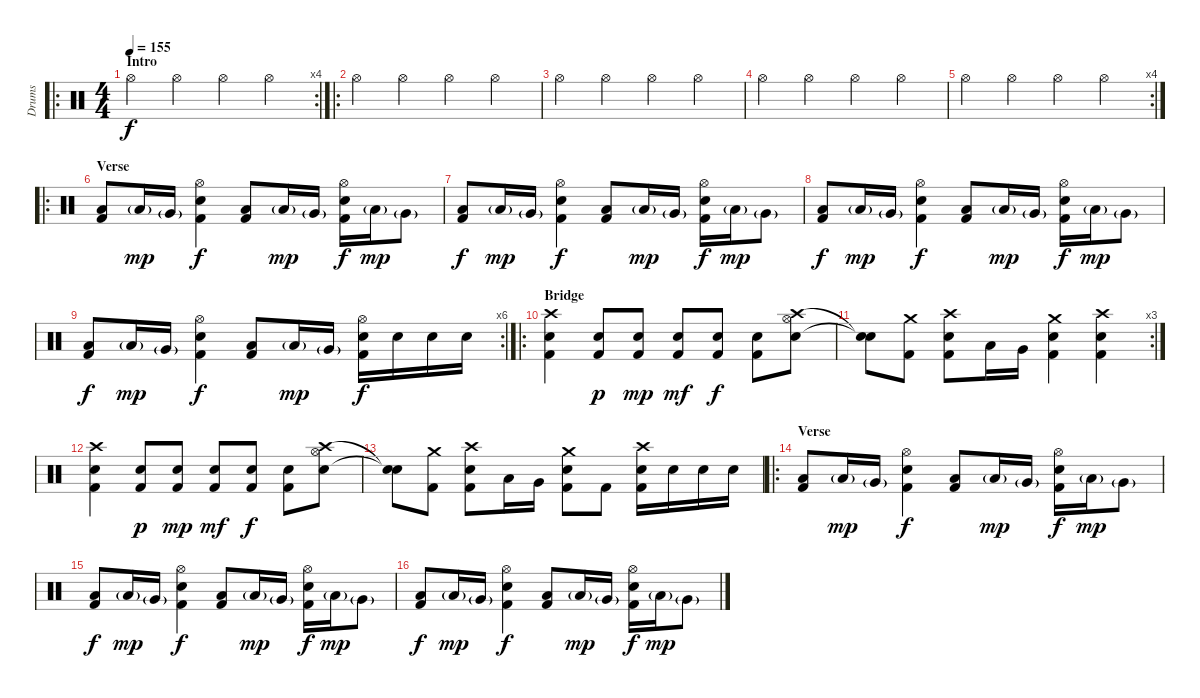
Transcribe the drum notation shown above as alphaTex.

\track ("Drums" "Drums") {instrument percussion}
\staff {score}
\articulation defaults
\ro
\rc 4
\ts (4 4)
\section ("" "Intro")
\tempo 155
\clef neutral
\ks c "Hi-Hat (open)".4{dy f} "Hi-Hat (open)".4 "Hi-Hat (open)".4 "Hi-Hat (open)".4
|
\ro "Hi-Hat (open)".4 "Hi-Hat (open)".4 "Hi-Hat (open)".4 "Hi-Hat (open)".4
|
"Hi-Hat (open)".4 "Hi-Hat (open)".4 "Hi-Hat (open)".4 "Hi-Hat (open)".4 |
"Hi-Hat (open)".4 "Hi-Hat (open)".4 "Hi-Hat (open)".4 "Hi-Hat (open)".4 |
\rc 4 "Hi-Hat (open)".4 "Hi-Hat (open)".4 "Hi-Hat (open)".4 "Hi-Hat (open)".4
|
\ro
\section ("" "Verse")
("Low Tom (hit)" "Kick (hit) 2").8 "Low Tom (hit)"{g}.16{dy mp} "Very Low Tom (hit)"{g}.16 ("Hi-Hat (open)" "Electric Snare (hit)" "Kick (hit) 2").4{dy f} ("Low Tom (hit)" "Kick (hit) 2").8 "Low Tom (hit)"{g}.16{dy mp} "Very Low Tom (hit)"{g}.16 ("Hi-Hat (open)" "Electric Snare (hit)" "Kick (hit) 2").16{dy f} "Low Tom (hit)"{g}.16{dy mp} "Very Low Tom (hit)"{g}.8 |
("Low Tom (hit)" "Kick (hit) 2").8{dy f} "Low Tom (hit)"{g}.16{dy mp} "Very Low Tom (hit)"{g}.16 ("Hi-Hat (open)" "Electric Snare (hit)" "Kick (hit) 2").4{dy f} ("Low Tom (hit)" "Kick (hit) 2").8 "Low Tom (hit)"{g}.16{dy mp} "Very Low Tom (hit)"{g}.16 ("Hi-Hat (open)" "Electric Snare (hit)" "Kick (hit) 2").16{dy f} "Low Tom (hit)"{g}.16{dy mp} "Very Low Tom (hit)"{g}.8 |
("Low Tom (hit)" "Kick (hit) 2").8{dy f} "Low Tom (hit)"{g}.16{dy mp} "Very Low Tom (hit)"{g}.16 ("Hi-Hat (open)" "Electric Snare (hit)" "Kick (hit) 2").4{dy f} ("Low Tom (hit)" "Kick (hit) 2").8 "Low Tom (hit)"{g}.16{dy mp} "Very Low Tom (hit)"{g}.16 ("Hi-Hat (open)" "Electric Snare (hit)" "Kick (hit) 2").16{dy f} "Low Tom (hit)"{g}.16{dy mp} "Very Low Tom (hit)"{g}.8 |
\rc 6
("Low Tom (hit)" "Kick (hit) 2").8{dy f} "Low Tom (hit)"{g}.16{dy mp} "Very Low Tom (hit)"{g}.16 ("Hi-Hat (open)" "Electric Snare (hit)" "Kick (hit) 2").4{dy f} ("Low Tom (hit)" "Kick (hit) 2").8 "Low Tom (hit)"{g}.16{dy mp} "Very Low Tom (hit)"{g}.16 ("Hi-Hat (open)" "Electric Snare (hit)" "Kick (hit) 2").16{dy f} "Electric Snare (hit)".16 "Electric Snare (hit)".16 "Electric Snare (hit)".16 |
\ro
\section ("" "Bridge")
("Crash high (hit)" "Electric Snare (hit)" "Kick (hit) 2").4 ("Electric Snare (hit)" "Kick (hit) 2").8{dy p} ("Electric Snare (hit)" "Kick (hit) 2").8{dy mp} ("Electric Snare (hit)" "Kick (hit) 2").8{dy mf} ("Electric Snare (hit)" "Kick (hit) 2").8{dy f} ("Electric Snare (hit)" "Kick (hit) 2").8 ("Crash high (hit)" "Electric Snare (hit)" "Hi-Hat (open)").8 |
\rc 3
("Snare (hit)"{t} "Snare (hit)"{t}).8 ("Crash medium (hit)" "Kick (hit) 2").8 ("Crash high (hit)" "Electric Snare (hit)" "Kick (hit) 2").8 "Low Tom (hit)".16 "Very Low Tom (hit)".16 ("Crash medium (hit)" "Electric Snare (hit)" "Kick (hit) 2").4 ("Crash high (hit)" "Electric Snare (hit)" "Kick (hit) 2").4 |
("Crash high (hit)" "Electric Snare (hit)" "Kick (hit) 2").4 ("Electric Snare (hit)" "Kick (hit) 2").8{dy p} ("Electric Snare (hit)" "Kick (hit) 2").8{dy mp} ("Electric Snare (hit)" "Kick (hit) 2").8{dy mf} ("Electric Snare (hit)" "Kick (hit) 2").8{dy f} ("Electric Snare (hit)" "Kick (hit) 2").8 ("Crash high (hit)" "Electric Snare (hit)" "Hi-Hat (open)").8 |
("Snare (hit)"{t} "Snare (hit)"{t}).8 ("Crash medium (hit)" "Kick (hit) 2").8 ("Crash high (hit)" "Electric Snare (hit)" "Kick (hit) 2").8 "Low Tom (hit)".16 "Very Low Tom (hit)".16 ("Crash medium (hit)" "Electric Snare (hit)" "Kick (hit) 2").8 "Kick (hit) 2".8 ("Crash high (hit)" "Electric Snare (hit)" "Kick (hit) 2").16 "Electric Snare (hit)".16 "Electric Snare (hit)".16 "Electric Snare (hit)".16 |
\ro
\section ("" "Verse")
("Low Tom (hit)" "Kick (hit) 2").8 "Low Tom (hit)"{g}.16{dy mp} "Very Low Tom (hit)"{g}.16 ("Hi-Hat (open)" "Electric Snare (hit)" "Kick (hit) 2").4{dy f} ("Low Tom (hit)" "Kick (hit) 2").8 "Low Tom (hit)"{g}.16{dy mp} "Very Low Tom (hit)"{g}.16 ("Hi-Hat (open)" "Electric Snare (hit)" "Kick (hit) 2").16{dy f} "Low Tom (hit)"{g}.16{dy mp} "Very Low Tom (hit)"{g}.8 |
("Low Tom (hit)" "Kick (hit) 2").8{dy f} "Low Tom (hit)"{g}.16{dy mp} "Very Low Tom (hit)"{g}.16 ("Hi-Hat (open)" "Electric Snare (hit)" "Kick (hit) 2").4{dy f} ("Low Tom (hit)" "Kick (hit) 2").8 "Low Tom (hit)"{g}.16{dy mp} "Very Low Tom (hit)"{g}.16 ("Hi-Hat (open)" "Electric Snare (hit)" "Kick (hit) 2").16{dy f} "Low Tom (hit)"{g}.16{dy mp} "Very Low Tom (hit)"{g}.8 |
("Low Tom (hit)" "Kick (hit) 2").8{dy f} "Low Tom (hit)"{g}.16{dy mp} "Very Low Tom (hit)"{g}.16 ("Hi-Hat (open)" "Electric Snare (hit)" "Kick (hit) 2").4{dy f} ("Low Tom (hit)" "Kick (hit) 2").8 "Low Tom (hit)"{g}.16{dy mp} "Very Low Tom (hit)"{g}.16 ("Hi-Hat (open)" "Electric Snare (hit)" "Kick (hit) 2").16{dy f} "Low Tom (hit)"{g}.16{dy mp} "Very Low Tom (hit)"{g}.8
